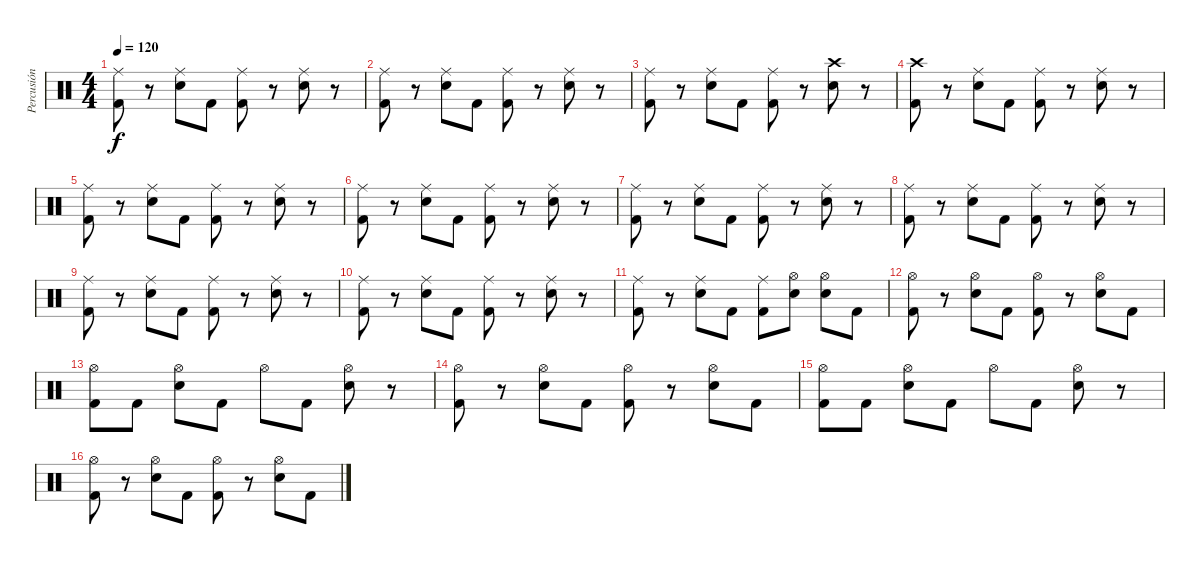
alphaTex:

\track ("Percusión" "Percusión") {instrument percussion}
\staff {score}
\articulation defaults
\ts (4 4)
\tempo 120
\clef neutral
\ks c
("Ride (middle)" "Kick (hit) 2").8{dy f} r.8 ("Ride (middle)" "Snare (hit) 2").8 "Kick (hit) 2".8 ("Ride (middle)" "Kick (hit) 2").8 r.8 ("Ride (middle)" "Snare (hit) 2").8 r.8 |
("Ride (middle)" "Kick (hit) 2").8 r.8 ("Ride (middle)" "Snare (hit) 2").8 "Kick (hit) 2".8 ("Ride (middle)" "Kick (hit) 2").8 r.8 ("Ride (middle)" "Snare (hit) 2").8 r.8 |
("Ride (middle)" "Kick (hit) 2").8 r.8 ("Ride (middle)" "Snare (hit) 2").8 "Kick (hit) 2".8 ("Ride (middle)" "Kick (hit) 2").8 r.8 ("Crash high (hit)" "Snare (hit) 2").8 r.8 |
("Crash high (hit)" "Kick (hit) 2").8 r.8 ("Ride (middle)" "Snare (hit) 2").8 "Kick (hit) 2".8 ("Ride (middle)" "Kick (hit) 2").8 r.8 ("Ride (middle)" "Snare (hit) 2").8 r.8 |
("Ride (middle)" "Kick (hit) 2").8 r.8 ("Ride (middle)" "Snare (hit) 2").8 "Kick (hit) 2".8 ("Ride (middle)" "Kick (hit) 2").8 r.8 ("Ride (middle)" "Snare (hit) 2").8 r.8 |
("Ride (middle)" "Kick (hit) 2").8 r.8 ("Ride (middle)" "Snare (hit) 2").8 "Kick (hit) 2".8 ("Ride (middle)" "Kick (hit) 2").8 r.8 ("Ride (middle)" "Snare (hit) 2").8 r.8 |
("Ride (middle)" "Kick (hit) 2").8 r.8 ("Ride (middle)" "Snare (hit) 2").8 "Kick (hit) 2".8 ("Ride (middle)" "Kick (hit) 2").8 r.8 ("Ride (middle)" "Snare (hit) 2").8 r.8 |
("Ride (middle)" "Kick (hit) 2").8 r.8 ("Ride (middle)" "Snare (hit) 2").8 "Kick (hit) 2".8 ("Ride (middle)" "Kick (hit) 2").8 r.8 ("Ride (middle)" "Snare (hit) 2").8 r.8 |
("Ride (middle)" "Kick (hit) 2").8 r.8 ("Ride (middle)" "Snare (hit) 2").8 "Kick (hit) 2".8 ("Ride (middle)" "Kick (hit) 2").8 r.8 ("Ride (middle)" "Snare (hit) 2").8 r.8 |
("Ride (middle)" "Kick (hit) 2").8 r.8 ("Ride (middle)" "Snare (hit) 2").8 "Kick (hit) 2".8 ("Ride (middle)" "Kick (hit) 2").8 r.8 ("Ride (middle)" "Snare (hit) 2").8 r.8 |
("Ride (middle)" "Kick (hit) 2").8 r.8 ("Ride (middle)" "Snare (hit) 2").8 "Kick (hit) 2".8 ("Ride (middle)" "Kick (hit) 2").8 ("Hi-Hat (open)" "Snare (hit) 2").8 ("Hi-Hat (open)" "Snare (hit) 2").8 "Kick (hit) 2".8 |
("Hi-Hat (open)" "Kick (hit) 2").8 r.8 ("Hi-Hat (open)" "Snare (hit) 2").8 "Kick (hit) 2".8 ("Hi-Hat (open)" "Kick (hit) 2").8 r.8 ("Hi-Hat (open)" "Snare (hit) 2").8 "Kick (hit) 2".8 |
("Hi-Hat (open)" "Kick (hit) 2").8 "Kick (hit) 2".8 ("Hi-Hat (open)" "Snare (hit) 2").8 "Kick (hit) 2".8 "Hi-Hat (open)".8 "Kick (hit) 2".8 ("Hi-Hat (open)" "Snare (hit) 2").8 r.8 |
("Hi-Hat (open)" "Kick (hit) 2").8 r.8 ("Hi-Hat (open)" "Snare (hit) 2").8 "Kick (hit) 2".8 ("Hi-Hat (open)" "Kick (hit) 2").8 r.8 ("Hi-Hat (open)" "Snare (hit) 2").8 "Kick (hit) 2".8 |
("Hi-Hat (open)" "Kick (hit) 2").8 "Kick (hit) 2".8 ("Hi-Hat (open)" "Snare (hit) 2").8 "Kick (hit) 2".8 "Hi-Hat (open)".8 "Kick (hit) 2".8 ("Hi-Hat (open)" "Snare (hit) 2").8 r.8 |
("Hi-Hat (open)" "Kick (hit) 2").8 r.8 ("Hi-Hat (open)" "Snare (hit) 2").8 "Kick (hit) 2".8 ("Hi-Hat (open)" "Kick (hit) 2").8 r.8 ("Hi-Hat (open)" "Snare (hit) 2").8 "Kick (hit) 2".8
